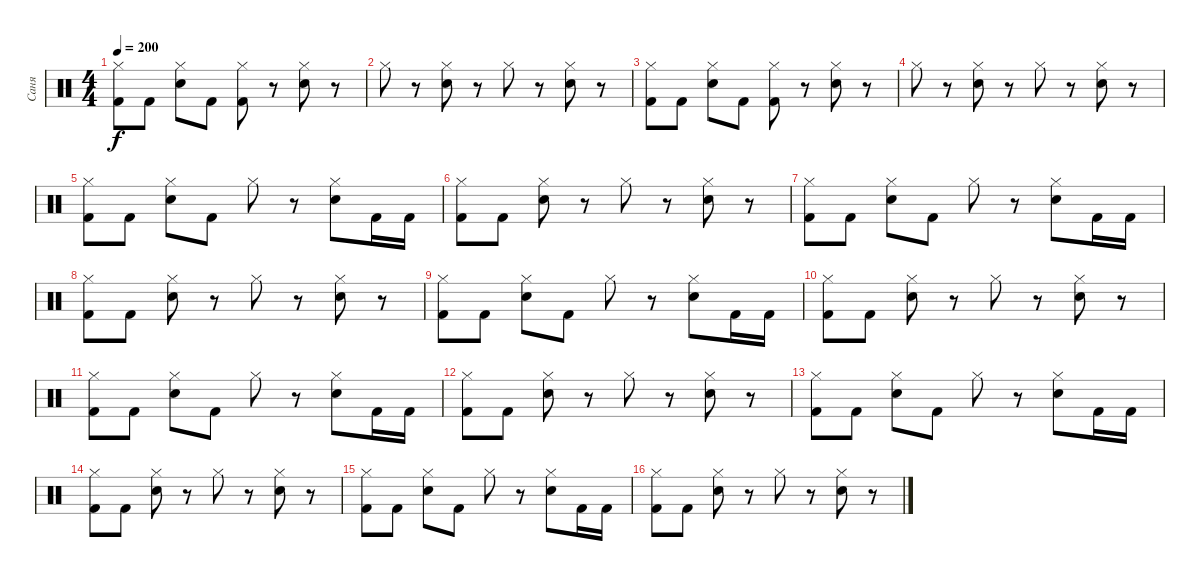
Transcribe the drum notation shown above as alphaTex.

\track ("Саня" "Саня") {instrument percussion}
\staff {score}
\articulation defaults
\ts (4 4)
\tempo 200
\clef neutral
\ks c
("Hi-Hat (closed)" "Kick (hit) 2").8{dy f} "Kick (hit) 2".8 ("Hi-Hat (closed)" "Electric Snare (hit)").8 "Kick (hit) 2".8 ("Hi-Hat (closed)" "Kick (hit) 2").8 r.8 ("Hi-Hat (closed)" "Electric Snare (hit)").8 r.8 |
"Hi-Hat (closed)".8 r.8 ("Hi-Hat (closed)" "Electric Snare (hit)").8 r.8 "Hi-Hat (closed)".8 r.8 ("Hi-Hat (closed)" "Electric Snare (hit)").8 r.8 |
("Hi-Hat (closed)" "Kick (hit) 2").8 "Kick (hit) 2".8 ("Hi-Hat (closed)" "Electric Snare (hit)").8 "Kick (hit) 2".8 ("Hi-Hat (closed)" "Kick (hit) 2").8 r.8 ("Hi-Hat (closed)" "Electric Snare (hit)").8 r.8 |
"Hi-Hat (closed)".8 r.8 ("Hi-Hat (closed)" "Electric Snare (hit)").8 r.8 "Hi-Hat (closed)".8 r.8 ("Hi-Hat (closed)" "Electric Snare (hit)").8 r.8 |
("Hi-Hat (closed)" "Kick (hit) 2").8 "Kick (hit) 2".8 ("Hi-Hat (closed)" "Electric Snare (hit)").8 "Kick (hit) 2".8 "Hi-Hat (closed)".8 r.8 ("Hi-Hat (closed)" "Electric Snare (hit)").8 "Kick (hit) 2".16 "Kick (hit) 2".16 |
("Hi-Hat (closed)" "Kick (hit) 2").8 "Kick (hit) 2".8 ("Hi-Hat (closed)" "Electric Snare (hit)").8 r.8 "Hi-Hat (closed)".8 r.8 ("Hi-Hat (closed)" "Electric Snare (hit)").8 r.8 |
("Hi-Hat (closed)" "Kick (hit) 2").8 "Kick (hit) 2".8 ("Hi-Hat (closed)" "Electric Snare (hit)").8 "Kick (hit) 2".8 "Hi-Hat (closed)".8 r.8 ("Hi-Hat (closed)" "Electric Snare (hit)").8 "Kick (hit) 2".16 "Kick (hit) 2".16 |
("Hi-Hat (closed)" "Kick (hit) 2").8 "Kick (hit) 2".8 ("Hi-Hat (closed)" "Electric Snare (hit)").8 r.8 "Hi-Hat (closed)".8 r.8 ("Hi-Hat (closed)" "Electric Snare (hit)").8 r.8 |
("Hi-Hat (closed)" "Kick (hit) 2").8 "Kick (hit) 2".8 ("Hi-Hat (closed)" "Electric Snare (hit)").8 "Kick (hit) 2".8 "Hi-Hat (closed)".8 r.8 ("Hi-Hat (closed)" "Electric Snare (hit)").8 "Kick (hit) 2".16 "Kick (hit) 2".16 |
("Hi-Hat (closed)" "Kick (hit) 2").8 "Kick (hit) 2".8 ("Hi-Hat (closed)" "Electric Snare (hit)").8 r.8 "Hi-Hat (closed)".8 r.8 ("Hi-Hat (closed)" "Electric Snare (hit)").8 r.8 |
("Hi-Hat (closed)" "Kick (hit) 2").8 "Kick (hit) 2".8 ("Hi-Hat (closed)" "Electric Snare (hit)").8 "Kick (hit) 2".8 "Hi-Hat (closed)".8 r.8 ("Hi-Hat (closed)" "Electric Snare (hit)").8 "Kick (hit) 2".16 "Kick (hit) 2".16 |
("Hi-Hat (closed)" "Kick (hit) 2").8 "Kick (hit) 2".8 ("Hi-Hat (closed)" "Electric Snare (hit)").8 r.8 "Hi-Hat (closed)".8 r.8 ("Hi-Hat (closed)" "Electric Snare (hit)").8 r.8 |
("Hi-Hat (closed)" "Kick (hit) 2").8 "Kick (hit) 2".8 ("Hi-Hat (closed)" "Electric Snare (hit)").8 "Kick (hit) 2".8 "Hi-Hat (closed)".8 r.8 ("Hi-Hat (closed)" "Electric Snare (hit)").8 "Kick (hit) 2".16 "Kick (hit) 2".16 |
("Hi-Hat (closed)" "Kick (hit) 2").8 "Kick (hit) 2".8 ("Hi-Hat (closed)" "Electric Snare (hit)").8 r.8 "Hi-Hat (closed)".8 r.8 ("Hi-Hat (closed)" "Electric Snare (hit)").8 r.8 |
("Hi-Hat (closed)" "Kick (hit) 2").8 "Kick (hit) 2".8 ("Hi-Hat (closed)" "Electric Snare (hit)").8 "Kick (hit) 2".8 "Hi-Hat (closed)".8 r.8 ("Hi-Hat (closed)" "Electric Snare (hit)").8 "Kick (hit) 2".16 "Kick (hit) 2".16 |
("Hi-Hat (closed)" "Kick (hit) 2").8 "Kick (hit) 2".8 ("Hi-Hat (closed)" "Electric Snare (hit)").8 r.8 "Hi-Hat (closed)".8 r.8 ("Hi-Hat (closed)" "Electric Snare (hit)").8 r.8
